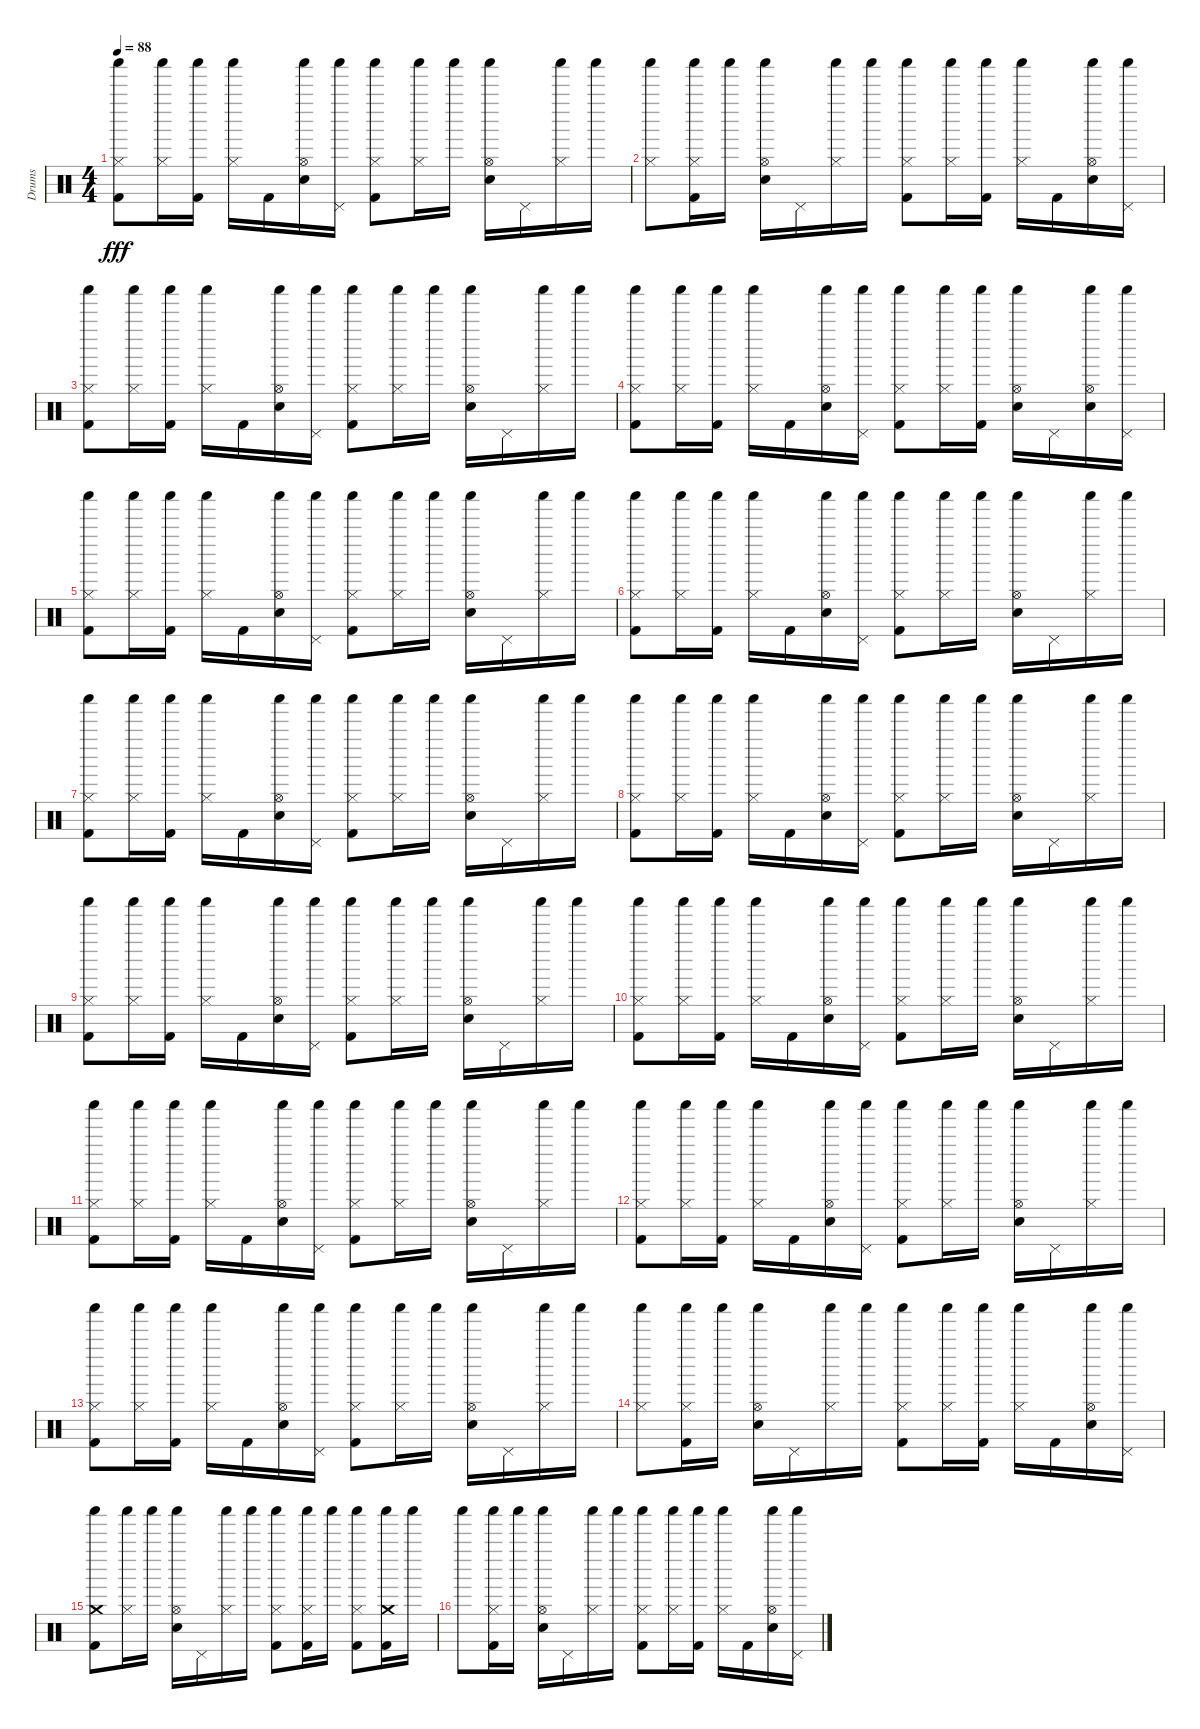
\track ("Drums" "Drums") {instrument percussion}
\staff {score}
\articulation defaults
\ts (4 4)
\tempo 88
\clef neutral
\ks c
("Hi-Hat (closed)" "Shaker (hit)" "Kick (hit) 2").8{dy fff} ("Hi-Hat (closed)" "Shaker (hit)").16 ("Shaker (hit)" "Kick (hit) 2").16 ("Hi-Hat (closed)" "Shaker (hit)").16 "Kick (hit) 2".16 ("Hi-Hat (open)" "Shaker (hit)" "Snare (hit) 2").16 ("Pedal Hi-Hat (hit)" "Shaker (hit)").16 ("Hi-Hat (closed)" "Shaker (hit)" "Kick (hit) 2").8 ("Hi-Hat (closed)" "Shaker (hit)").16 "Shaker (hit)".16 ("Hi-Hat (open)" "Shaker (hit)" "Snare (hit) 2").16 "Pedal Hi-Hat (hit)".16 ("Hi-Hat (closed)" "Shaker (hit)").16 "Shaker (hit)".16 |
("Hi-Hat (closed)" "Shaker (hit)").8 ("Hi-Hat (closed)" "Shaker (hit)" "Kick (hit) 2").16 "Shaker (hit)".16 ("Hi-Hat (open)" "Shaker (hit)" "Snare (hit) 2").16 "Pedal Hi-Hat (hit)".16 ("Hi-Hat (closed)" "Shaker (hit)").16 "Shaker (hit)".16 ("Hi-Hat (closed)" "Shaker (hit)" "Kick (hit) 2").8 ("Hi-Hat (closed)" "Shaker (hit)").16 ("Shaker (hit)" "Kick (hit) 2").16 ("Hi-Hat (closed)" "Shaker (hit)").16 "Kick (hit) 2".16 ("Hi-Hat (open)" "Shaker (hit)" "Snare (hit) 2").16 ("Pedal Hi-Hat (hit)" "Shaker (hit)").16 |
("Hi-Hat (closed)" "Shaker (hit)" "Kick (hit) 2").8 ("Hi-Hat (closed)" "Shaker (hit)").16 ("Shaker (hit)" "Kick (hit) 2").16 ("Hi-Hat (closed)" "Shaker (hit)").16 "Kick (hit) 2".16 ("Hi-Hat (open)" "Shaker (hit)" "Snare (hit) 2").16 ("Pedal Hi-Hat (hit)" "Shaker (hit)").16 ("Hi-Hat (closed)" "Shaker (hit)" "Kick (hit) 2").8 ("Hi-Hat (closed)" "Shaker (hit)").16 "Shaker (hit)".16 ("Hi-Hat (open)" "Shaker (hit)" "Snare (hit) 2").16 "Pedal Hi-Hat (hit)".16 ("Hi-Hat (closed)" "Shaker (hit)").16 "Shaker (hit)".16 |
("Hi-Hat (closed)" "Shaker (hit)" "Kick (hit) 2").8 ("Hi-Hat (closed)" "Shaker (hit)").16 ("Shaker (hit)" "Kick (hit) 2").16 ("Hi-Hat (closed)" "Shaker (hit)").16 "Kick (hit) 2".16 ("Hi-Hat (open)" "Shaker (hit)" "Snare (hit) 2").16 ("Pedal Hi-Hat (hit)" "Shaker (hit)").16 ("Hi-Hat (closed)" "Shaker (hit)" "Kick (hit) 2").8 ("Hi-Hat (closed)" "Shaker (hit)").16 ("Shaker (hit)" "Kick (hit) 2").16 ("Hi-Hat (open)" "Shaker (hit)" "Snare (hit) 2").16 "Pedal Hi-Hat (hit)".16 ("Hi-Hat (open)" "Shaker (hit)" "Snare (hit) 2").16 ("Pedal Hi-Hat (hit)" "Shaker (hit)").16 |
("Hi-Hat (closed)" "Shaker (hit)" "Kick (hit) 2").8 ("Hi-Hat (closed)" "Shaker (hit)").16 ("Shaker (hit)" "Kick (hit) 2").16 ("Hi-Hat (closed)" "Shaker (hit)").16 "Kick (hit) 2".16 ("Hi-Hat (open)" "Shaker (hit)" "Snare (hit) 2").16 ("Pedal Hi-Hat (hit)" "Shaker (hit)").16 ("Hi-Hat (closed)" "Shaker (hit)" "Kick (hit) 2").8 ("Hi-Hat (closed)" "Shaker (hit)").16 "Shaker (hit)".16 ("Hi-Hat (open)" "Shaker (hit)" "Snare (hit) 2").16 "Pedal Hi-Hat (hit)".16 ("Hi-Hat (closed)" "Shaker (hit)").16 "Shaker (hit)".16 |
("Hi-Hat (closed)" "Shaker (hit)" "Kick (hit) 2").8 ("Hi-Hat (closed)" "Shaker (hit)").16 ("Shaker (hit)" "Kick (hit) 2").16 ("Hi-Hat (closed)" "Shaker (hit)").16 "Kick (hit) 2".16 ("Hi-Hat (open)" "Shaker (hit)" "Snare (hit) 2").16 ("Pedal Hi-Hat (hit)" "Shaker (hit)").16 ("Hi-Hat (closed)" "Shaker (hit)" "Kick (hit) 2").8 ("Hi-Hat (closed)" "Shaker (hit)").16 "Shaker (hit)".16 ("Hi-Hat (open)" "Shaker (hit)" "Snare (hit) 2").16 "Pedal Hi-Hat (hit)".16 ("Hi-Hat (closed)" "Shaker (hit)").16 "Shaker (hit)".16 |
("Hi-Hat (closed)" "Shaker (hit)" "Kick (hit) 2").8 ("Hi-Hat (closed)" "Shaker (hit)").16 ("Shaker (hit)" "Kick (hit) 2").16 ("Hi-Hat (closed)" "Shaker (hit)").16 "Kick (hit) 2".16 ("Hi-Hat (open)" "Shaker (hit)" "Snare (hit) 2").16 ("Pedal Hi-Hat (hit)" "Shaker (hit)").16 ("Hi-Hat (closed)" "Shaker (hit)" "Kick (hit) 2").8 ("Hi-Hat (closed)" "Shaker (hit)").16 "Shaker (hit)".16 ("Hi-Hat (open)" "Shaker (hit)" "Snare (hit) 2").16 "Pedal Hi-Hat (hit)".16 ("Hi-Hat (closed)" "Shaker (hit)").16 "Shaker (hit)".16 |
("Hi-Hat (closed)" "Shaker (hit)" "Kick (hit) 2").8 ("Hi-Hat (closed)" "Shaker (hit)").16 ("Shaker (hit)" "Kick (hit) 2").16 ("Hi-Hat (closed)" "Shaker (hit)").16 "Kick (hit) 2".16 ("Hi-Hat (open)" "Shaker (hit)" "Snare (hit) 2").16 ("Pedal Hi-Hat (hit)" "Shaker (hit)").16 ("Hi-Hat (closed)" "Shaker (hit)" "Kick (hit) 2").8 ("Hi-Hat (closed)" "Shaker (hit)").16 "Shaker (hit)".16 ("Hi-Hat (open)" "Shaker (hit)" "Snare (hit) 2").16 "Pedal Hi-Hat (hit)".16 ("Hi-Hat (closed)" "Shaker (hit)").16 "Shaker (hit)".16 |
("Hi-Hat (closed)" "Shaker (hit)" "Kick (hit) 2").8 ("Hi-Hat (closed)" "Shaker (hit)").16 ("Shaker (hit)" "Kick (hit) 2").16 ("Hi-Hat (closed)" "Shaker (hit)").16 "Kick (hit) 2".16 ("Hi-Hat (open)" "Shaker (hit)" "Snare (hit) 2").16 ("Pedal Hi-Hat (hit)" "Shaker (hit)").16 ("Hi-Hat (closed)" "Shaker (hit)" "Kick (hit) 2").8 ("Hi-Hat (closed)" "Shaker (hit)").16 "Shaker (hit)".16 ("Hi-Hat (open)" "Shaker (hit)" "Snare (hit) 2").16 "Pedal Hi-Hat (hit)".16 ("Hi-Hat (closed)" "Shaker (hit)").16 "Shaker (hit)".16 |
("Hi-Hat (closed)" "Shaker (hit)" "Kick (hit) 2").8 ("Hi-Hat (closed)" "Shaker (hit)").16 ("Shaker (hit)" "Kick (hit) 2").16 ("Hi-Hat (closed)" "Shaker (hit)").16 "Kick (hit) 2".16 ("Hi-Hat (open)" "Shaker (hit)" "Snare (hit) 2").16 ("Pedal Hi-Hat (hit)" "Shaker (hit)").16 ("Hi-Hat (closed)" "Shaker (hit)" "Kick (hit) 2").8 ("Hi-Hat (closed)" "Shaker (hit)").16 "Shaker (hit)".16 ("Hi-Hat (open)" "Shaker (hit)" "Snare (hit) 2").16 "Pedal Hi-Hat (hit)".16 ("Hi-Hat (closed)" "Shaker (hit)").16 "Shaker (hit)".16 |
("Hi-Hat (closed)" "Shaker (hit)" "Kick (hit) 2").8 ("Hi-Hat (closed)" "Shaker (hit)").16 ("Shaker (hit)" "Kick (hit) 2").16 ("Hi-Hat (closed)" "Shaker (hit)").16 "Kick (hit) 2".16 ("Hi-Hat (open)" "Shaker (hit)" "Snare (hit) 2").16 ("Pedal Hi-Hat (hit)" "Shaker (hit)").16 ("Hi-Hat (closed)" "Shaker (hit)" "Kick (hit) 2").8 ("Hi-Hat (closed)" "Shaker (hit)").16 "Shaker (hit)".16 ("Hi-Hat (open)" "Shaker (hit)" "Snare (hit) 2").16 "Pedal Hi-Hat (hit)".16 ("Hi-Hat (closed)" "Shaker (hit)").16 "Shaker (hit)".16 |
("Hi-Hat (closed)" "Shaker (hit)" "Kick (hit) 2").8 ("Hi-Hat (closed)" "Shaker (hit)").16 ("Shaker (hit)" "Kick (hit) 2").16 ("Hi-Hat (closed)" "Shaker (hit)").16 "Kick (hit) 2".16 ("Hi-Hat (open)" "Shaker (hit)" "Snare (hit) 2").16 ("Pedal Hi-Hat (hit)" "Shaker (hit)").16 ("Hi-Hat (closed)" "Shaker (hit)" "Kick (hit) 2").8 ("Hi-Hat (closed)" "Shaker (hit)").16 "Shaker (hit)".16 ("Hi-Hat (open)" "Shaker (hit)" "Snare (hit) 2").16 "Pedal Hi-Hat (hit)".16 ("Hi-Hat (closed)" "Shaker (hit)").16 "Shaker (hit)".16 |
("Hi-Hat (closed)" "Shaker (hit)" "Kick (hit) 2").8 ("Hi-Hat (closed)" "Shaker (hit)").16 ("Shaker (hit)" "Kick (hit) 2").16 ("Hi-Hat (closed)" "Shaker (hit)").16 "Kick (hit) 2".16 ("Hi-Hat (open)" "Shaker (hit)" "Snare (hit) 2").16 ("Pedal Hi-Hat (hit)" "Shaker (hit)").16 ("Hi-Hat (closed)" "Shaker (hit)" "Kick (hit) 2").8 ("Hi-Hat (closed)" "Shaker (hit)").16 "Shaker (hit)".16 ("Hi-Hat (open)" "Shaker (hit)" "Snare (hit) 2").16 "Pedal Hi-Hat (hit)".16 ("Hi-Hat (closed)" "Shaker (hit)").16 "Shaker (hit)".16 |
("Hi-Hat (closed)" "Shaker (hit)").8 ("Hi-Hat (closed)" "Shaker (hit)" "Kick (hit) 2").16 "Shaker (hit)".16 ("Hi-Hat (open)" "Shaker (hit)" "Snare (hit) 2").16 "Pedal Hi-Hat (hit)".16 ("Hi-Hat (closed)" "Shaker (hit)").16 "Shaker (hit)".16 ("Hi-Hat (closed)" "Shaker (hit)" "Kick (hit) 2").8 ("Hi-Hat (closed)" "Shaker (hit)").16 ("Shaker (hit)" "Kick (hit) 2").16 ("Hi-Hat (closed)" "Shaker (hit)").16 "Kick (hit) 2".16 ("Hi-Hat (open)" "Shaker (hit)" "Snare (hit) 2").16 ("Pedal Hi-Hat (hit)" "Shaker (hit)").16 |
("Crash medium (hit)" "Shaker (hit)" "Kick (hit) 2").8 ("Hi-Hat (closed)" "Shaker (hit)").16 "Shaker (hit)".16 ("Hi-Hat (open)" "Shaker (hit)" "Snare (hit) 2").16 "Pedal Hi-Hat (hit)".16 ("Hi-Hat (closed)" "Shaker (hit)").16 "Shaker (hit)".16 ("Hi-Hat (closed)" "Shaker (hit)" "Kick (hit) 2").8 ("Hi-Hat (closed)" "Shaker (hit)" "Kick (hit) 2").16 "Shaker (hit)".16 ("Hi-Hat (closed)" "Shaker (hit)" "Kick (hit) 2").8 ("Crash medium (hit)" "Shaker (hit)" "Kick (hit) 2").16 "Shaker (hit)".16 |
"Shaker (hit)".8 ("Hi-Hat (closed)" "Shaker (hit)" "Kick (hit) 2").16 "Shaker (hit)".16 ("Hi-Hat (open)" "Shaker (hit)" "Snare (hit) 2").16 "Pedal Hi-Hat (hit)".16 ("Hi-Hat (closed)" "Shaker (hit)").16 "Shaker (hit)".16 ("Hi-Hat (closed)" "Shaker (hit)" "Kick (hit) 2").8 ("Hi-Hat (closed)" "Shaker (hit)").16 ("Shaker (hit)" "Kick (hit) 2").16 ("Hi-Hat (closed)" "Shaker (hit)").16 "Kick (hit) 2".16 ("Hi-Hat (open)" "Shaker (hit)" "Snare (hit) 2").16 ("Pedal Hi-Hat (hit)" "Shaker (hit)").16
